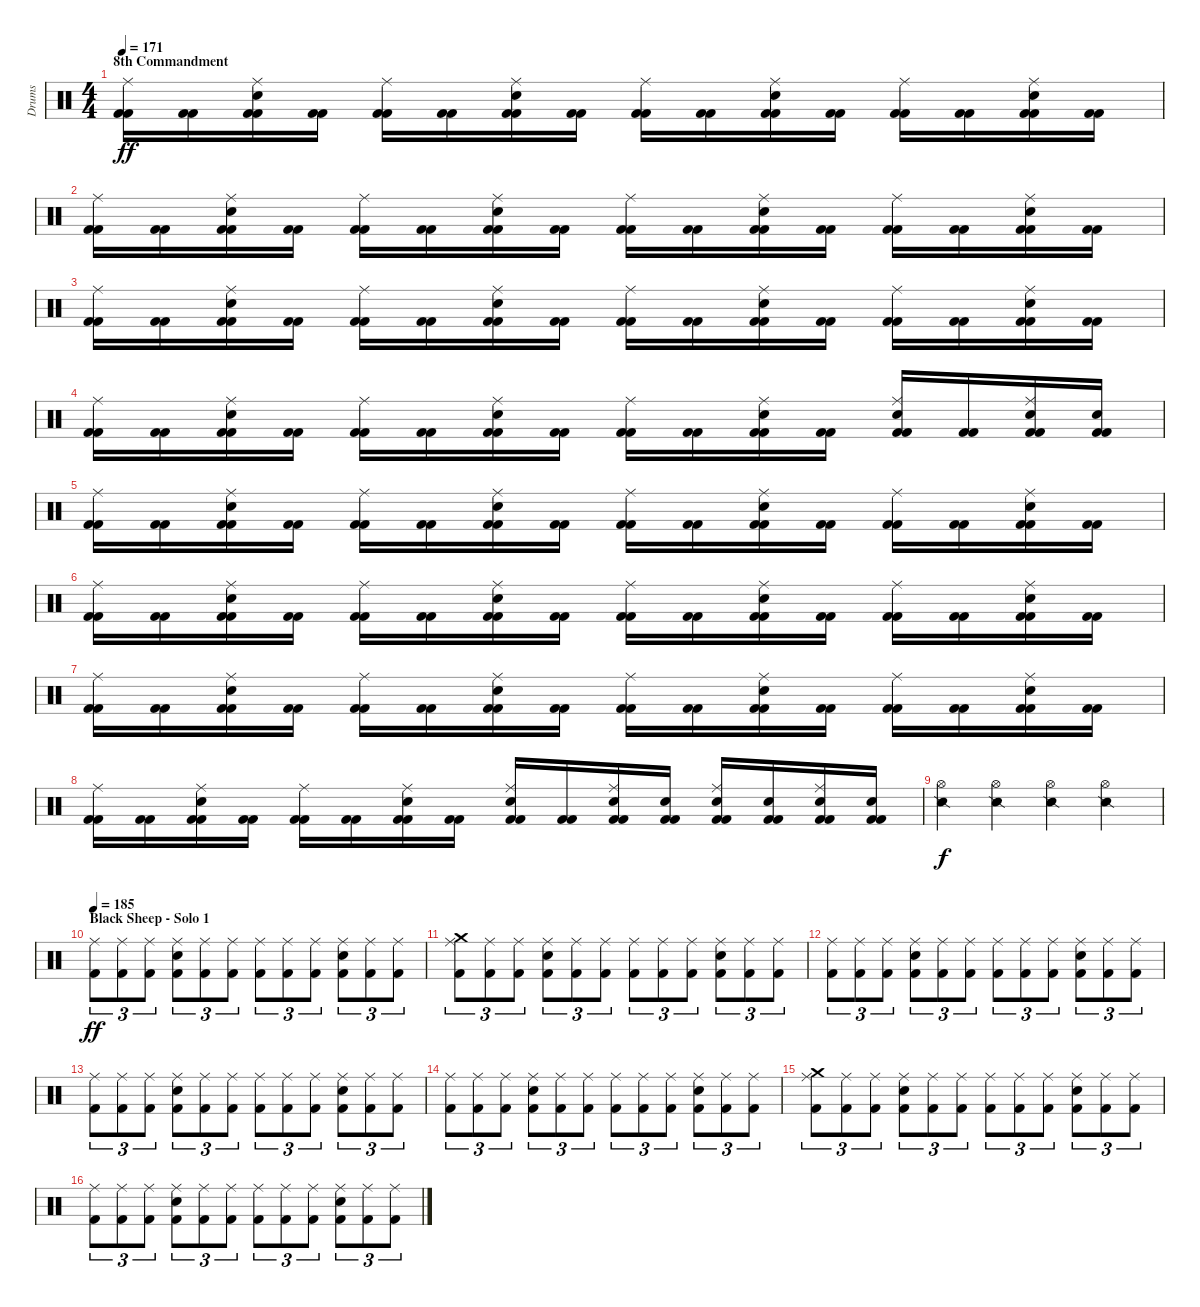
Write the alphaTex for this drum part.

\track ("Drums" "Drums") {instrument percussion}
\staff {score}
\articulation defaults
\ts (4 4)
\section ("" "8th Commandment")
\tempo 171
\tempo 175
\tempo 171
\clef neutral
\ks c
("Kick (hit) 2" "Kick (hit) 2" "Ride (middle)").16{dy ff} ("Kick (hit) 2" "Kick (hit) 2").16 ("Kick (hit) 2" "Kick (hit) 2" "Ride (middle)" "Electric Snare (hit)").16 ("Kick (hit) 2" "Kick (hit) 2").16 ("Kick (hit) 2" "Kick (hit) 2" "Ride (middle)").16 ("Kick (hit) 2" "Kick (hit) 2").16 ("Kick (hit) 2" "Kick (hit) 2" "Ride (middle)" "Electric Snare (hit)").16 ("Kick (hit) 2" "Kick (hit) 2").16 ("Kick (hit) 2" "Kick (hit) 2" "Ride (middle)").16 ("Kick (hit) 2" "Kick (hit) 2").16 ("Kick (hit) 2" "Kick (hit) 2" "Ride (middle)" "Electric Snare (hit)").16 ("Kick (hit) 2" "Kick (hit) 2").16 ("Kick (hit) 2" "Kick (hit) 2" "Ride (middle)").16 ("Kick (hit) 2" "Kick (hit) 2").16 ("Kick (hit) 2" "Kick (hit) 2" "Ride (middle)" "Electric Snare (hit)").16 ("Kick (hit) 2" "Kick (hit) 2").16 |
("Kick (hit) 2" "Kick (hit) 2" "Ride (middle)").16 ("Kick (hit) 2" "Kick (hit) 2").16 ("Kick (hit) 2" "Kick (hit) 2" "Ride (middle)" "Electric Snare (hit)").16 ("Kick (hit) 2" "Kick (hit) 2").16 ("Kick (hit) 2" "Kick (hit) 2" "Ride (middle)").16 ("Kick (hit) 2" "Kick (hit) 2").16 ("Kick (hit) 2" "Kick (hit) 2" "Ride (middle)" "Electric Snare (hit)").16 ("Kick (hit) 2" "Kick (hit) 2").16 ("Kick (hit) 2" "Kick (hit) 2" "Ride (middle)").16 ("Kick (hit) 2" "Kick (hit) 2").16 ("Kick (hit) 2" "Kick (hit) 2" "Ride (middle)" "Electric Snare (hit)").16 ("Kick (hit) 2" "Kick (hit) 2").16 ("Kick (hit) 2" "Kick (hit) 2" "Ride (middle)").16 ("Kick (hit) 2" "Kick (hit) 2").16 ("Kick (hit) 2" "Kick (hit) 2" "Ride (middle)" "Electric Snare (hit)").16 ("Kick (hit) 2" "Kick (hit) 2").16 |
("Kick (hit) 2" "Kick (hit) 2" "Ride (middle)").16 ("Kick (hit) 2" "Kick (hit) 2").16 ("Kick (hit) 2" "Kick (hit) 2" "Ride (middle)" "Electric Snare (hit)").16 ("Kick (hit) 2" "Kick (hit) 2").16 ("Kick (hit) 2" "Kick (hit) 2" "Ride (middle)").16 ("Kick (hit) 2" "Kick (hit) 2").16 ("Kick (hit) 2" "Kick (hit) 2" "Ride (middle)" "Electric Snare (hit)").16 ("Kick (hit) 2" "Kick (hit) 2").16 ("Kick (hit) 2" "Kick (hit) 2" "Ride (middle)").16 ("Kick (hit) 2" "Kick (hit) 2").16 ("Kick (hit) 2" "Kick (hit) 2" "Ride (middle)" "Electric Snare (hit)").16 ("Kick (hit) 2" "Kick (hit) 2").16 ("Kick (hit) 2" "Kick (hit) 2" "Ride (middle)").16 ("Kick (hit) 2" "Kick (hit) 2").16 ("Kick (hit) 2" "Kick (hit) 2" "Ride (middle)" "Electric Snare (hit)").16 ("Kick (hit) 2" "Kick (hit) 2").16 |
("Kick (hit) 2" "Kick (hit) 2" "Ride (middle)").16 ("Kick (hit) 2" "Kick (hit) 2").16 ("Kick (hit) 2" "Kick (hit) 2" "Ride (middle)" "Electric Snare (hit)").16 ("Kick (hit) 2" "Kick (hit) 2").16 ("Kick (hit) 2" "Kick (hit) 2" "Ride (middle)").16 ("Kick (hit) 2" "Kick (hit) 2").16 ("Kick (hit) 2" "Kick (hit) 2" "Ride (middle)" "Electric Snare (hit)").16 ("Kick (hit) 2" "Kick (hit) 2").16 ("Kick (hit) 2" "Kick (hit) 2" "Ride (middle)").16 ("Kick (hit) 2" "Kick (hit) 2").16 ("Kick (hit) 2" "Kick (hit) 2" "Ride (middle)" "Electric Snare (hit)").16 ("Kick (hit) 2" "Kick (hit) 2").16 ("Kick (hit) 2" "Kick (hit) 2" "Ride (middle)" "Electric Snare (hit)").16 ("Kick (hit) 2" "Kick (hit) 2").16 ("Kick (hit) 2" "Kick (hit) 2" "Ride (middle)" "Electric Snare (hit)").16 ("Kick (hit) 2" "Kick (hit) 2" "Electric Snare (hit)").16 |
("Kick (hit) 2" "Kick (hit) 2" "Ride (middle)").16 ("Kick (hit) 2" "Kick (hit) 2").16 ("Kick (hit) 2" "Kick (hit) 2" "Ride (middle)" "Electric Snare (hit)").16 ("Kick (hit) 2" "Kick (hit) 2").16 ("Kick (hit) 2" "Kick (hit) 2" "Ride (middle)").16 ("Kick (hit) 2" "Kick (hit) 2").16 ("Kick (hit) 2" "Kick (hit) 2" "Ride (middle)" "Electric Snare (hit)").16 ("Kick (hit) 2" "Kick (hit) 2").16 ("Kick (hit) 2" "Kick (hit) 2" "Ride (middle)").16 ("Kick (hit) 2" "Kick (hit) 2").16 ("Kick (hit) 2" "Kick (hit) 2" "Ride (middle)" "Electric Snare (hit)").16 ("Kick (hit) 2" "Kick (hit) 2").16 ("Kick (hit) 2" "Kick (hit) 2" "Ride (middle)").16 ("Kick (hit) 2" "Kick (hit) 2").16 ("Kick (hit) 2" "Kick (hit) 2" "Ride (middle)" "Electric Snare (hit)").16 ("Kick (hit) 2" "Kick (hit) 2").16 |
("Kick (hit) 2" "Kick (hit) 2" "Ride (middle)").16 ("Kick (hit) 2" "Kick (hit) 2").16 ("Kick (hit) 2" "Kick (hit) 2" "Ride (middle)" "Electric Snare (hit)").16 ("Kick (hit) 2" "Kick (hit) 2").16 ("Kick (hit) 2" "Kick (hit) 2" "Ride (middle)").16 ("Kick (hit) 2" "Kick (hit) 2").16 ("Kick (hit) 2" "Kick (hit) 2" "Ride (middle)" "Electric Snare (hit)").16 ("Kick (hit) 2" "Kick (hit) 2").16 ("Kick (hit) 2" "Kick (hit) 2" "Ride (middle)").16 ("Kick (hit) 2" "Kick (hit) 2").16 ("Kick (hit) 2" "Kick (hit) 2" "Ride (middle)" "Electric Snare (hit)").16 ("Kick (hit) 2" "Kick (hit) 2").16 ("Kick (hit) 2" "Kick (hit) 2" "Ride (middle)").16 ("Kick (hit) 2" "Kick (hit) 2").16 ("Kick (hit) 2" "Kick (hit) 2" "Ride (middle)" "Electric Snare (hit)").16 ("Kick (hit) 2" "Kick (hit) 2").16 |
("Kick (hit) 2" "Kick (hit) 2" "Ride (middle)").16 ("Kick (hit) 2" "Kick (hit) 2").16 ("Kick (hit) 2" "Kick (hit) 2" "Ride (middle)" "Electric Snare (hit)").16 ("Kick (hit) 2" "Kick (hit) 2").16 ("Kick (hit) 2" "Kick (hit) 2" "Ride (middle)").16 ("Kick (hit) 2" "Kick (hit) 2").16 ("Kick (hit) 2" "Kick (hit) 2" "Ride (middle)" "Electric Snare (hit)").16 ("Kick (hit) 2" "Kick (hit) 2").16 ("Kick (hit) 2" "Kick (hit) 2" "Ride (middle)").16 ("Kick (hit) 2" "Kick (hit) 2").16 ("Kick (hit) 2" "Kick (hit) 2" "Ride (middle)" "Electric Snare (hit)").16 ("Kick (hit) 2" "Kick (hit) 2").16 ("Kick (hit) 2" "Kick (hit) 2" "Ride (middle)").16 ("Kick (hit) 2" "Kick (hit) 2").16 ("Kick (hit) 2" "Kick (hit) 2" "Ride (middle)" "Electric Snare (hit)").16 ("Kick (hit) 2" "Kick (hit) 2").16 |
("Kick (hit) 2" "Kick (hit) 2" "Ride (middle)").16 ("Kick (hit) 2" "Kick (hit) 2").16 ("Kick (hit) 2" "Kick (hit) 2" "Ride (middle)" "Electric Snare (hit)").16 ("Kick (hit) 2" "Kick (hit) 2").16 ("Kick (hit) 2" "Kick (hit) 2" "Ride (middle)").16 ("Kick (hit) 2" "Kick (hit) 2").16 ("Kick (hit) 2" "Kick (hit) 2" "Ride (middle)" "Electric Snare (hit)").16 ("Kick (hit) 2" "Kick (hit) 2").16 ("Kick (hit) 2" "Kick (hit) 2" "Ride (middle)" "Electric Snare (hit)").16 ("Kick (hit) 2" "Kick (hit) 2").16 ("Kick (hit) 2" "Kick (hit) 2" "Ride (middle)" "Electric Snare (hit)").16 ("Kick (hit) 2" "Kick (hit) 2" "Electric Snare (hit)").16 ("Kick (hit) 2" "Kick (hit) 2" "Ride (middle)" "Electric Snare (hit)").16 ("Kick (hit) 2" "Kick (hit) 2" "Electric Snare (hit)").16 ("Kick (hit) 2" "Kick (hit) 2" "Ride (middle)" "Electric Snare (hit)").16 ("Kick (hit) 2" "Kick (hit) 2" "Electric Snare (hit)").16 |
("Snare (side stick) 2" "Hi-Hat (open)").4{dy f} ("Snare (side stick) 2" "Hi-Hat (open)").4 ("Snare (side stick) 2" "Hi-Hat (open)").4 ("Snare (side stick) 2" "Hi-Hat (open)").4 |
\section ("" "Black Sheep - Solo 1")
\tempo 185
("Ride (middle)" "Kick (hit) 2").8{tu (3 2) dy ff} ("Ride (middle)" "Kick (hit) 2").8{tu (3 2)} ("Ride (middle)" "Kick (hit) 2").8{tu (3 2)} ("Ride (middle)" "Snare (hit) 2" "Kick (hit) 2").8{tu (3 2)} ("Ride (middle)" "Kick (hit) 2").8{tu (3 2)} ("Ride (middle)" "Kick (hit) 2").8{tu (3 2)} ("Ride (middle)" "Kick (hit) 2").8{tu (3 2)} ("Ride (middle)" "Kick (hit) 2").8{tu (3 2)} ("Ride (middle)" "Kick (hit) 2").8{tu (3 2)} ("Ride (middle)" "Snare (hit) 2" "Kick (hit) 2").8{tu (3 2)} ("Ride (middle)" "Kick (hit) 2").8{tu (3 2)} ("Ride (middle)" "Kick (hit) 2").8{tu (3 2)} |
("Crash medium (hit)" "Ride (middle)" "Kick (hit) 2").8{tu (3 2)} ("Ride (middle)" "Kick (hit) 2").8{tu (3 2)} ("Ride (middle)" "Kick (hit) 2").8{tu (3 2)} ("Ride (middle)" "Snare (hit) 2" "Kick (hit) 2").8{tu (3 2)} ("Ride (middle)" "Kick (hit) 2").8{tu (3 2)} ("Ride (middle)" "Kick (hit) 2").8{tu (3 2)} ("Ride (middle)" "Kick (hit) 2").8{tu (3 2)} ("Ride (middle)" "Kick (hit) 2").8{tu (3 2)} ("Ride (middle)" "Kick (hit) 2").8{tu (3 2)} ("Ride (middle)" "Snare (hit) 2" "Kick (hit) 2").8{tu (3 2)} ("Ride (middle)" "Kick (hit) 2").8{tu (3 2)} ("Ride (middle)" "Kick (hit) 2").8{tu (3 2)} |
("Ride (middle)" "Kick (hit) 2").8{tu (3 2)} ("Ride (middle)" "Kick (hit) 2").8{tu (3 2)} ("Ride (middle)" "Kick (hit) 2").8{tu (3 2)} ("Ride (middle)" "Snare (hit) 2" "Kick (hit) 2").8{tu (3 2)} ("Ride (middle)" "Kick (hit) 2").8{tu (3 2)} ("Ride (middle)" "Kick (hit) 2").8{tu (3 2)} ("Ride (middle)" "Kick (hit) 2").8{tu (3 2)} ("Ride (middle)" "Kick (hit) 2").8{tu (3 2)} ("Ride (middle)" "Kick (hit) 2").8{tu (3 2)} ("Ride (middle)" "Snare (hit) 2" "Kick (hit) 2").8{tu (3 2)} ("Ride (middle)" "Kick (hit) 2").8{tu (3 2)} ("Ride (middle)" "Kick (hit) 2").8{tu (3 2)} |
("Ride (middle)" "Kick (hit) 2").8{tu (3 2)} ("Ride (middle)" "Kick (hit) 2").8{tu (3 2)} ("Ride (middle)" "Kick (hit) 2").8{tu (3 2)} ("Ride (middle)" "Snare (hit) 2" "Kick (hit) 2").8{tu (3 2)} ("Ride (middle)" "Kick (hit) 2").8{tu (3 2)} ("Ride (middle)" "Kick (hit) 2").8{tu (3 2)} ("Ride (middle)" "Kick (hit) 2").8{tu (3 2)} ("Ride (middle)" "Kick (hit) 2").8{tu (3 2)} ("Ride (middle)" "Kick (hit) 2").8{tu (3 2)} ("Ride (middle)" "Snare (hit) 2" "Kick (hit) 2").8{tu (3 2)} ("Ride (middle)" "Kick (hit) 2").8{tu (3 2)} ("Ride (middle)" "Kick (hit) 2").8{tu (3 2)} |
("Ride (middle)" "Kick (hit) 2").8{tu (3 2)} ("Ride (middle)" "Kick (hit) 2").8{tu (3 2)} ("Ride (middle)" "Kick (hit) 2").8{tu (3 2)} ("Ride (middle)" "Snare (hit) 2" "Kick (hit) 2").8{tu (3 2)} ("Ride (middle)" "Kick (hit) 2").8{tu (3 2)} ("Ride (middle)" "Kick (hit) 2").8{tu (3 2)} ("Ride (middle)" "Kick (hit) 2").8{tu (3 2)} ("Ride (middle)" "Kick (hit) 2").8{tu (3 2)} ("Ride (middle)" "Kick (hit) 2").8{tu (3 2)} ("Ride (middle)" "Snare (hit) 2" "Kick (hit) 2").8{tu (3 2)} ("Ride (middle)" "Kick (hit) 2").8{tu (3 2)} ("Ride (middle)" "Kick (hit) 2").8{tu (3 2)} |
("Crash medium (hit)" "Ride (middle)" "Kick (hit) 2").8{tu (3 2)} ("Ride (middle)" "Kick (hit) 2").8{tu (3 2)} ("Ride (middle)" "Kick (hit) 2").8{tu (3 2)} ("Ride (middle)" "Snare (hit) 2" "Kick (hit) 2").8{tu (3 2)} ("Ride (middle)" "Kick (hit) 2").8{tu (3 2)} ("Ride (middle)" "Kick (hit) 2").8{tu (3 2)} ("Ride (middle)" "Kick (hit) 2").8{tu (3 2)} ("Ride (middle)" "Kick (hit) 2").8{tu (3 2)} ("Ride (middle)" "Kick (hit) 2").8{tu (3 2)} ("Ride (middle)" "Snare (hit) 2" "Kick (hit) 2").8{tu (3 2)} ("Ride (middle)" "Kick (hit) 2").8{tu (3 2)} ("Ride (middle)" "Kick (hit) 2").8{tu (3 2)} |
("Ride (middle)" "Kick (hit) 2").8{tu (3 2)} ("Ride (middle)" "Kick (hit) 2").8{tu (3 2)} ("Ride (middle)" "Kick (hit) 2").8{tu (3 2)} ("Ride (middle)" "Snare (hit) 2" "Kick (hit) 2").8{tu (3 2)} ("Ride (middle)" "Kick (hit) 2").8{tu (3 2)} ("Ride (middle)" "Kick (hit) 2").8{tu (3 2)} ("Ride (middle)" "Kick (hit) 2").8{tu (3 2)} ("Ride (middle)" "Kick (hit) 2").8{tu (3 2)} ("Ride (middle)" "Kick (hit) 2").8{tu (3 2)} ("Ride (middle)" "Snare (hit) 2" "Kick (hit) 2").8{tu (3 2)} ("Ride (middle)" "Kick (hit) 2").8{tu (3 2)} ("Ride (middle)" "Kick (hit) 2").8{tu (3 2)}
